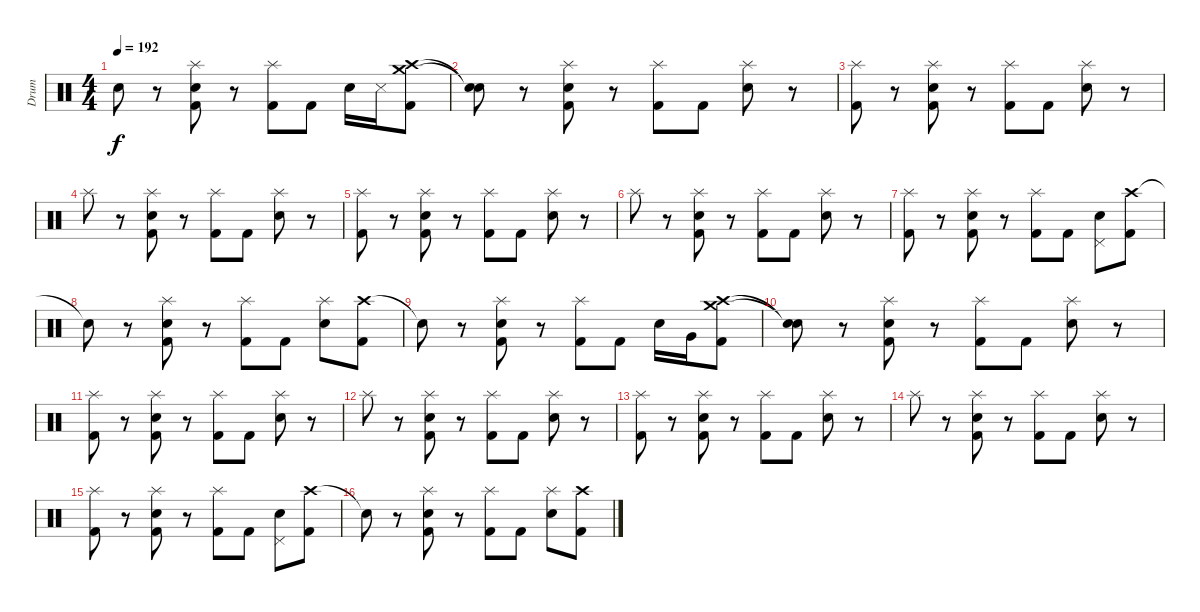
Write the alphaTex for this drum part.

\track ("Drum" "Drum") {instrument percussion}
\staff {score}
\articulation defaults
\ts (4 4)
\tempo 192
\clef neutral
\ks c "Snare (hit)"{t}.8{dy f}
r.8 ("Splash (hit)" "Electric Snare (hit)" "Kick (hit) 2").8 r.8 ("Splash (hit)" "Kick (hit) 2").8 "Kick (hit) 2".8 "Electric Snare (hit)".16 "Snare (side stick) 3".16 ("Crash high (hit)" "Crash medium (hit)" "Kick (hit) 2").8 |
("Snare (hit)"{t} "Snare (hit)"{t}).8 r.8 ("Splash (hit)" "Electric Snare (hit)" "Kick (hit) 2").8 r.8 ("Splash (hit)" "Kick (hit) 2").8 "Kick (hit) 2".8 ("Splash (hit)" "Electric Snare (hit)").8 r.8 |
("Splash (hit)" "Kick (hit) 2").8 r.8 ("Splash (hit)" "Electric Snare (hit)" "Kick (hit) 2").8 r.8 ("Splash (hit)" "Kick (hit) 2").8 "Kick (hit) 2".8 ("Splash (hit)" "Electric Snare (hit)").8 r.8 |
"Splash (hit)".8 r.8 ("Splash (hit)" "Electric Snare (hit)" "Kick (hit) 2").8 r.8 ("Splash (hit)" "Kick (hit) 2").8 "Kick (hit) 2".8 ("Splash (hit)" "Electric Snare (hit)").8 r.8 |
("Splash (hit)" "Kick (hit) 2").8 r.8 ("Splash (hit)" "Electric Snare (hit)" "Kick (hit) 2").8 r.8 ("Splash (hit)" "Kick (hit) 2").8 "Kick (hit) 2".8 ("Splash (hit)" "Electric Snare (hit)").8 r.8 |
"Splash (hit)".8 r.8 ("Splash (hit)" "Electric Snare (hit)" "Kick (hit) 2").8 r.8 ("Splash (hit)" "Kick (hit) 2").8 "Kick (hit) 2".8 ("Splash (hit)" "Electric Snare (hit)").8 r.8 |
("Splash (hit)" "Kick (hit) 2").8 r.8 ("Splash (hit)" "Electric Snare (hit)" "Kick (hit) 2").8 r.8 ("Splash (hit)" "Kick (hit) 2").8 "Kick (hit) 2".8 ("Pedal Hi-Hat (hit)" "Electric Snare (hit)").8 ("Crash high (hit)" "Kick (hit) 2").8 |
"Snare (hit)"{t}.8 r.8 ("Splash (hit)" "Electric Snare (hit)" "Kick (hit) 2").8 r.8 ("Splash (hit)" "Kick (hit) 2").8 "Kick (hit) 2".8 ("Splash (hit)" "Electric Snare (hit)").8 ("Crash high (hit)" "Kick (hit) 2").8 |
"Snare (hit)"{t}.8 r.8 ("Splash (hit)" "Electric Snare (hit)" "Kick (hit) 2").8 r.8 ("Splash (hit)" "Kick (hit) 2").8 "Kick (hit) 2".8 "Electric Snare (hit)".16 "Very Low Tom (hit)".16 ("Crash high (hit)" "Crash medium (hit)" "Kick (hit) 2").8 |
("Snare (hit)"{t} "Snare (hit)"{t}).8 r.8 ("Splash (hit)" "Electric Snare (hit)" "Kick (hit) 2").8 r.8 ("Splash (hit)" "Kick (hit) 2").8 "Kick (hit) 2".8 ("Splash (hit)" "Electric Snare (hit)").8 r.8 |
("Splash (hit)" "Kick (hit) 2").8 r.8 ("Splash (hit)" "Electric Snare (hit)" "Kick (hit) 2").8 r.8 ("Splash (hit)" "Kick (hit) 2").8 "Kick (hit) 2".8 ("Splash (hit)" "Electric Snare (hit)").8 r.8 |
"Splash (hit)".8 r.8 ("Splash (hit)" "Electric Snare (hit)" "Kick (hit) 2").8 r.8 ("Splash (hit)" "Kick (hit) 2").8 "Kick (hit) 2".8 ("Splash (hit)" "Electric Snare (hit)").8 r.8 |
("Splash (hit)" "Kick (hit) 2").8 r.8 ("Splash (hit)" "Electric Snare (hit)" "Kick (hit) 2").8 r.8 ("Splash (hit)" "Kick (hit) 2").8 "Kick (hit) 2".8 ("Splash (hit)" "Electric Snare (hit)").8 r.8 |
"Splash (hit)".8 r.8 ("Splash (hit)" "Electric Snare (hit)" "Kick (hit) 2").8 r.8 ("Splash (hit)" "Kick (hit) 2").8 "Kick (hit) 2".8 ("Splash (hit)" "Electric Snare (hit)").8 r.8 |
("Splash (hit)" "Kick (hit) 2").8 r.8 ("Splash (hit)" "Electric Snare (hit)" "Kick (hit) 2").8 r.8 ("Splash (hit)" "Kick (hit) 2").8 "Kick (hit) 2".8 ("Pedal Hi-Hat (hit)" "Electric Snare (hit)").8 ("Crash high (hit)" "Kick (hit) 2").8 |
"Snare (hit)"{t}.8 r.8 ("Splash (hit)" "Electric Snare (hit)" "Kick (hit) 2").8 r.8 ("Splash (hit)" "Kick (hit) 2").8 "Kick (hit) 2".8 ("Splash (hit)" "Electric Snare (hit)").8 ("Crash high (hit)" "Kick (hit) 2").8
